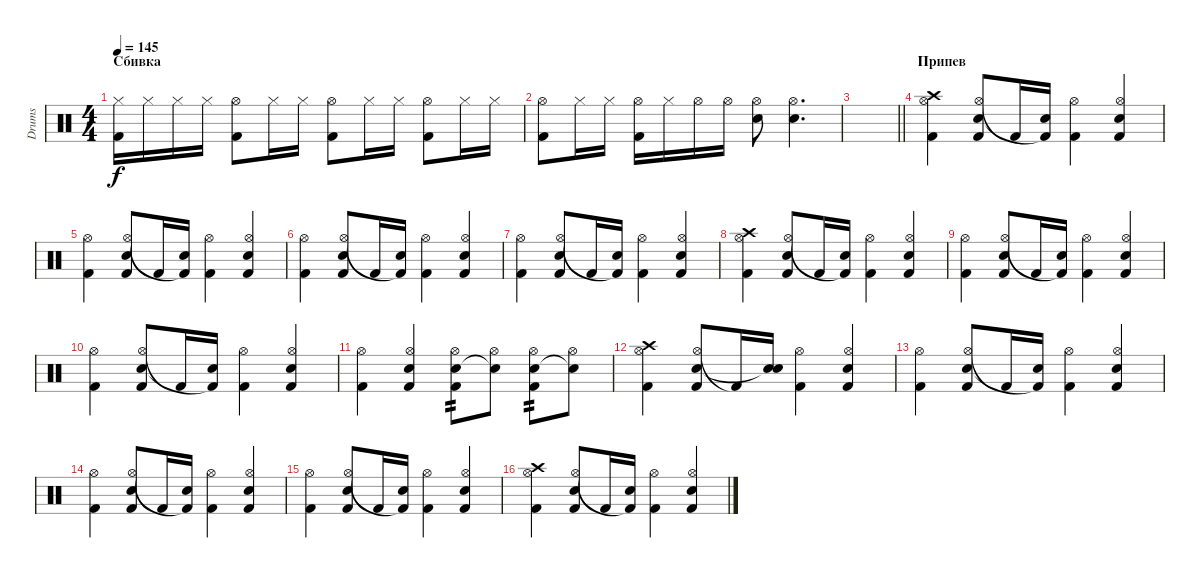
\track ("Drums" "Drums") {instrument percussion}
\staff {score}
\articulation defaults
\ts (4 4)
\section ("" "Сбивка")
\tempo 145
\clef neutral
\ks c
("Hi-Hat (closed)" "Kick (hit) 2").16{dy f} "Hi-Hat (closed)".16 "Hi-Hat (closed)".16 "Hi-Hat (closed)".16 ("Hi-Hat (open)" "Kick (hit) 2").8 "Hi-Hat (closed)".16 "Hi-Hat (closed)".16 ("Hi-Hat (open)" "Kick (hit) 2").8 "Hi-Hat (closed)".16 "Hi-Hat (closed)".16 ("Hi-Hat (open)" "Kick (hit) 2").8 "Hi-Hat (closed)".16 "Hi-Hat (closed)".16 |
("Hi-Hat (open)" "Kick (hit) 2").8 "Hi-Hat (closed)".16 "Hi-Hat (closed)".16 ("Hi-Hat (open)" "Kick (hit) 2").16 "Hi-Hat (closed)".16 "Hi-Hat (open)".16 "Hi-Hat (open)".16 ("Hi-Hat (open)" "Electric Snare (hit)").8 ("Hi-Hat (open)" "Electric Snare (hit)").4{d} |
\barLineRight lightlight
|
\section ("" "Припев")
("Crash high (hit)" "Hi-Hat (open)" "Kick (hit) 2").4 ("Hi-Hat (open)" "Electric Snare (hit)" "Kick (hit) 2").8 "Kick (hit) 2"{t}.16 ("Electric Snare (hit)" "Kick (hit) 2"{t}).16 ("Hi-Hat (open)" "Kick (hit) 2").4 ("Hi-Hat (open)" "Electric Snare (hit)" "Kick (hit) 2").4 |
("Hi-Hat (open)" "Kick (hit) 2").4 ("Hi-Hat (open)" "Electric Snare (hit)" "Kick (hit) 2").8 "Kick (hit) 2"{t}.16 ("Electric Snare (hit)" "Kick (hit) 2"{t}).16 ("Hi-Hat (open)" "Kick (hit) 2").4 ("Hi-Hat (open)" "Electric Snare (hit)" "Kick (hit) 2").4 |
("Hi-Hat (open)" "Kick (hit) 2").4 ("Hi-Hat (open)" "Electric Snare (hit)" "Kick (hit) 2").8 "Kick (hit) 2"{t}.16 ("Electric Snare (hit)" "Kick (hit) 2"{t}).16 ("Hi-Hat (open)" "Kick (hit) 2").4 ("Hi-Hat (open)" "Electric Snare (hit)" "Kick (hit) 2").4 |
("Hi-Hat (open)" "Kick (hit) 2").4 ("Hi-Hat (open)" "Electric Snare (hit)" "Kick (hit) 2").8 "Kick (hit) 2"{t}.16 ("Electric Snare (hit)" "Kick (hit) 2"{t}).16 ("Hi-Hat (open)" "Kick (hit) 2").4 ("Hi-Hat (open)" "Electric Snare (hit)" "Kick (hit) 2").4 |
("Crash high (hit)" "Hi-Hat (open)" "Kick (hit) 2").4 ("Hi-Hat (open)" "Electric Snare (hit)" "Kick (hit) 2").8 "Kick (hit) 2"{t}.16 ("Electric Snare (hit)" "Kick (hit) 2"{t}).16 ("Hi-Hat (open)" "Kick (hit) 2").4 ("Hi-Hat (open)" "Electric Snare (hit)" "Kick (hit) 2").4 |
("Hi-Hat (open)" "Kick (hit) 2").4 ("Hi-Hat (open)" "Electric Snare (hit)" "Kick (hit) 2").8 "Kick (hit) 2"{t}.16 ("Electric Snare (hit)" "Kick (hit) 2"{t}).16 ("Hi-Hat (open)" "Kick (hit) 2").4 ("Hi-Hat (open)" "Electric Snare (hit)" "Kick (hit) 2").4 |
("Hi-Hat (open)" "Kick (hit) 2").4 ("Hi-Hat (open)" "Electric Snare (hit)" "Kick (hit) 2").8 "Kick (hit) 2"{t}.16 ("Electric Snare (hit)" "Kick (hit) 2"{t}).16 ("Hi-Hat (open)" "Kick (hit) 2").4 ("Hi-Hat (open)" "Electric Snare (hit)" "Kick (hit) 2").4 |
("Hi-Hat (open)" "Kick (hit) 2").4 ("Hi-Hat (open)" "Electric Snare (hit)" "Kick (hit) 2").4 ("Hi-Hat (open)" "Electric Snare (hit)" "Kick (hit) 2").8{tp 2} ("Hi-Hat (open)" "Electric Snare (hit)"{t}).8 ("Hi-Hat (open)" "Electric Snare (hit)" "Kick (hit) 2").8{tp 2} ("Hi-Hat (open)" "Electric Snare (hit)"{t}).8 |
("Crash high (hit)" "Hi-Hat (open)" "Kick (hit) 2").4 ("Hi-Hat (open)" "Electric Snare (hit)" "Kick (hit) 2").8 "Kick (hit) 2"{t}.16 ("Electric Snare (hit)" "Snare (hit)"{t}).16 ("Hi-Hat (open)" "Kick (hit) 2").4 ("Hi-Hat (open)" "Electric Snare (hit)" "Kick (hit) 2").4 |
("Hi-Hat (open)" "Kick (hit) 2").4 ("Hi-Hat (open)" "Electric Snare (hit)" "Kick (hit) 2").8 "Kick (hit) 2"{t}.16 ("Electric Snare (hit)" "Kick (hit) 2"{t}).16 ("Hi-Hat (open)" "Kick (hit) 2").4 ("Hi-Hat (open)" "Electric Snare (hit)" "Kick (hit) 2").4 |
("Hi-Hat (open)" "Kick (hit) 2").4 ("Hi-Hat (open)" "Electric Snare (hit)" "Kick (hit) 2").8 "Kick (hit) 2"{t}.16 ("Electric Snare (hit)" "Kick (hit) 2"{t}).16 ("Hi-Hat (open)" "Kick (hit) 2").4 ("Hi-Hat (open)" "Electric Snare (hit)" "Kick (hit) 2").4 |
("Hi-Hat (open)" "Kick (hit) 2").4 ("Hi-Hat (open)" "Electric Snare (hit)" "Kick (hit) 2").8 "Kick (hit) 2"{t}.16 ("Electric Snare (hit)" "Kick (hit) 2"{t}).16 ("Hi-Hat (open)" "Kick (hit) 2").4 ("Hi-Hat (open)" "Electric Snare (hit)" "Kick (hit) 2").4 |
("Crash high (hit)" "Hi-Hat (open)" "Kick (hit) 2").4 ("Hi-Hat (open)" "Electric Snare (hit)" "Kick (hit) 2").8 "Kick (hit) 2"{t}.16 ("Electric Snare (hit)" "Kick (hit) 2"{t}).16 ("Hi-Hat (open)" "Kick (hit) 2").4 ("Hi-Hat (open)" "Electric Snare (hit)" "Kick (hit) 2").4
